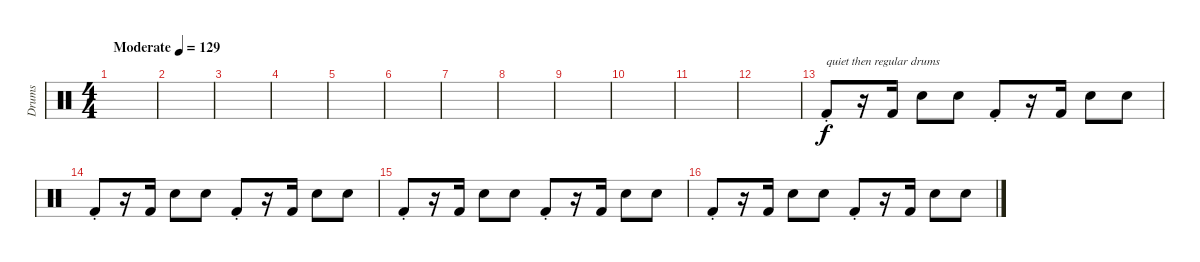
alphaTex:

\track ("Drums" "Drums") {instrument percussion}
\staff {score}
\articulation defaults
\ts (4 4)
\tempo (129 "Moderate")
\clef neutral
\ks c
|
|
|
|
|
|
|
|
|
|
|
|
"Kick (hit) 2"{st}.8{txt "quiet then regular drums" volume 10} r.16 "Kick (hit) 2".16 "Electric Snare (hit)".8 "Electric Snare (hit)".8 "Kick (hit) 2"{st}.8 r.16 "Kick (hit) 2".16 "Electric Snare (hit)".8 "Electric Snare (hit)".8 |
"Kick (hit) 2"{st}.8 r.16 "Kick (hit) 2".16 "Electric Snare (hit)".8 "Electric Snare (hit)".8 "Kick (hit) 2"{st}.8 r.16 "Kick (hit) 2".16 "Electric Snare (hit)".8 "Electric Snare (hit)".8 |
"Kick (hit) 2"{st}.8 r.16 "Kick (hit) 2".16 "Electric Snare (hit)".8 "Electric Snare (hit)".8 "Kick (hit) 2"{st}.8 r.16 "Kick (hit) 2".16 "Electric Snare (hit)".8 "Electric Snare (hit)".8 |
"Kick (hit) 2"{st}.8 r.16 "Kick (hit) 2".16 "Electric Snare (hit)".8 "Electric Snare (hit)".8 "Kick (hit) 2"{st}.8 r.16 "Kick (hit) 2".16 "Electric Snare (hit)".8 "Electric Snare (hit)".8
